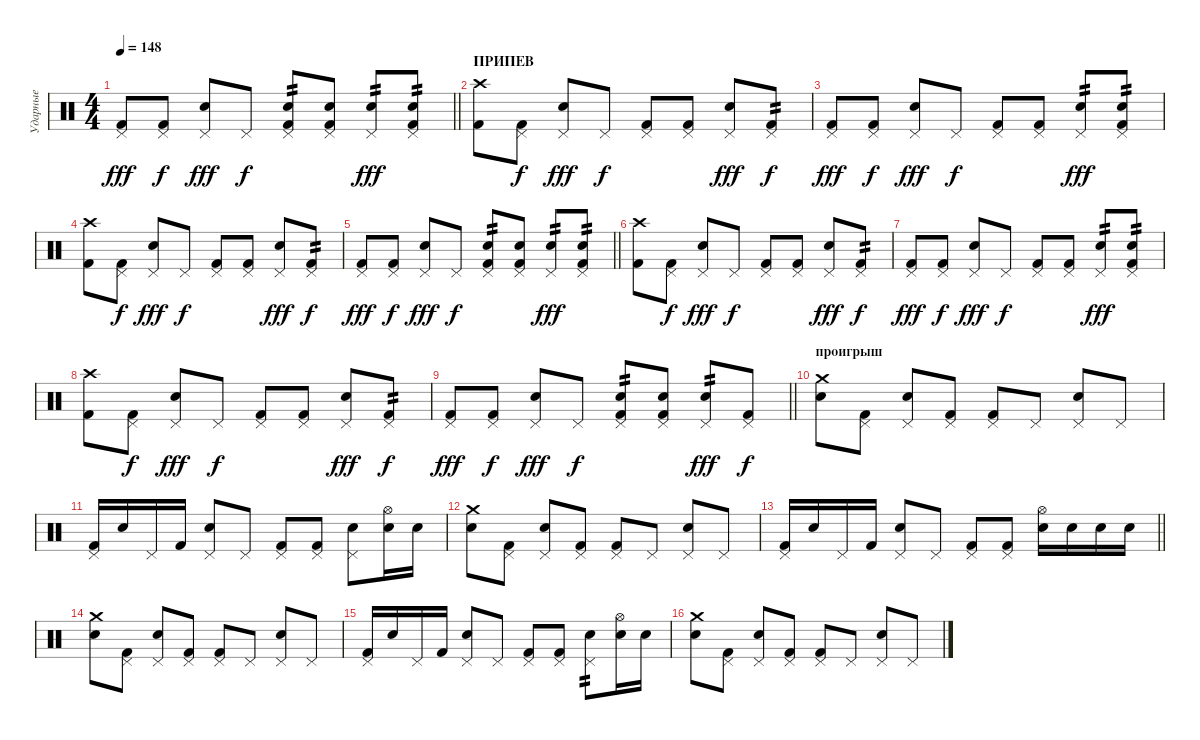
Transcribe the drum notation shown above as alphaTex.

\track ("Ударные" "Ударные") {instrument percussion}
\staff
\articulation defaults
\ts (4 4)
\tempo 148
\clef neutral
\barLineRight lightlight
\ks c
("Pedal Hi-Hat (hit)" "Kick (hit) 2").8{dy fff} ("Pedal Hi-Hat (hit)" "Kick (hit) 2").8{dy f} ("Pedal Hi-Hat (hit)" "Electric Snare (hit)").8{dy fff} "Pedal Hi-Hat (hit)".8{dy f} ("Pedal Hi-Hat (hit)" "Electric Snare (hit)" "Kick (hit) 2").8{tp 2} ("Pedal Hi-Hat (hit)" "Electric Snare (hit)" "Kick (hit) 2").8 ("Pedal Hi-Hat (hit)" "Electric Snare (hit)").8{tp 2 dy fff} ("Pedal Hi-Hat (hit)" "Electric Snare (hit)" "Kick (hit) 2").8{tp 2} |
\section ("" "ПРИПЕВ")
("Crash high (hit)" "Kick (hit) 2").8 ("Pedal Hi-Hat (hit)" "Kick (hit) 2").8{dy f} ("Pedal Hi-Hat (hit)" "Electric Snare (hit)").8{dy fff} "Pedal Hi-Hat (hit)".8{dy f} ("Pedal Hi-Hat (hit)" "Kick (hit) 2").8 ("Pedal Hi-Hat (hit)" "Kick (hit) 2").8 ("Pedal Hi-Hat (hit)" "Electric Snare (hit)").8{dy fff} ("Pedal Hi-Hat (hit)" "Kick (hit) 2").8{tp 2 dy f} |
("Pedal Hi-Hat (hit)" "Kick (hit) 2").8{dy fff} ("Pedal Hi-Hat (hit)" "Kick (hit) 2").8{dy f} ("Pedal Hi-Hat (hit)" "Electric Snare (hit)").8{dy fff} "Pedal Hi-Hat (hit)".8{dy f} ("Pedal Hi-Hat (hit)" "Kick (hit) 2").8 ("Pedal Hi-Hat (hit)" "Kick (hit) 2").8 ("Pedal Hi-Hat (hit)" "Electric Snare (hit)").8{tp 2 dy fff} ("Pedal Hi-Hat (hit)" "Electric Snare (hit)" "Kick (hit) 2").8{tp 2} |
("Crash high (hit)" "Kick (hit) 2").8 ("Pedal Hi-Hat (hit)" "Kick (hit) 2").8{dy f} ("Pedal Hi-Hat (hit)" "Electric Snare (hit)").8{dy fff} "Pedal Hi-Hat (hit)".8{dy f} ("Pedal Hi-Hat (hit)" "Kick (hit) 2").8 ("Pedal Hi-Hat (hit)" "Kick (hit) 2").8 ("Pedal Hi-Hat (hit)" "Electric Snare (hit)").8{dy fff} ("Pedal Hi-Hat (hit)" "Kick (hit) 2").8{tp 2 dy f} |
\barLineRight lightlight
("Pedal Hi-Hat (hit)" "Kick (hit) 2").8{dy fff} ("Pedal Hi-Hat (hit)" "Kick (hit) 2").8{dy f} ("Pedal Hi-Hat (hit)" "Electric Snare (hit)").8{dy fff} "Pedal Hi-Hat (hit)".8{dy f} ("Pedal Hi-Hat (hit)" "Electric Snare (hit)" "Kick (hit) 2").8{tp 2} ("Pedal Hi-Hat (hit)" "Electric Snare (hit)" "Kick (hit) 2").8 ("Pedal Hi-Hat (hit)" "Electric Snare (hit)").8{tp 2 dy fff} ("Pedal Hi-Hat (hit)" "Electric Snare (hit)" "Kick (hit) 2").8{tp 2} |
("Crash high (hit)" "Kick (hit) 2").8 ("Pedal Hi-Hat (hit)" "Kick (hit) 2").8{dy f} ("Pedal Hi-Hat (hit)" "Electric Snare (hit)").8{dy fff} "Pedal Hi-Hat (hit)".8{dy f} ("Pedal Hi-Hat (hit)" "Kick (hit) 2").8 ("Pedal Hi-Hat (hit)" "Kick (hit) 2").8 ("Pedal Hi-Hat (hit)" "Electric Snare (hit)").8{dy fff} ("Pedal Hi-Hat (hit)" "Kick (hit) 2").8{tp 2 dy f} |
("Pedal Hi-Hat (hit)" "Kick (hit) 2").8{dy fff} ("Pedal Hi-Hat (hit)" "Kick (hit) 2").8{dy f} ("Pedal Hi-Hat (hit)" "Electric Snare (hit)").8{dy fff} "Pedal Hi-Hat (hit)".8{dy f} ("Pedal Hi-Hat (hit)" "Kick (hit) 2").8 ("Pedal Hi-Hat (hit)" "Kick (hit) 2").8 ("Pedal Hi-Hat (hit)" "Electric Snare (hit)").8{tp 2 dy fff} ("Pedal Hi-Hat (hit)" "Electric Snare (hit)" "Kick (hit) 2").8{tp 2} |
("Crash high (hit)" "Kick (hit) 2").8 ("Pedal Hi-Hat (hit)" "Kick (hit) 2").8{dy f} ("Pedal Hi-Hat (hit)" "Electric Snare (hit)").8{dy fff} "Pedal Hi-Hat (hit)".8{dy f} ("Pedal Hi-Hat (hit)" "Kick (hit) 2").8 ("Pedal Hi-Hat (hit)" "Kick (hit) 2").8 ("Pedal Hi-Hat (hit)" "Electric Snare (hit)").8{dy fff} ("Pedal Hi-Hat (hit)" "Kick (hit) 2").8{tp 2 dy f} |
\barLineRight lightlight
("Pedal Hi-Hat (hit)" "Kick (hit) 2").8{dy fff} ("Pedal Hi-Hat (hit)" "Kick (hit) 2").8{dy f} ("Pedal Hi-Hat (hit)" "Electric Snare (hit)").8{dy fff} "Pedal Hi-Hat (hit)".8{dy f} ("Pedal Hi-Hat (hit)" "Electric Snare (hit)" "Kick (hit) 2").8{tp 2} ("Pedal Hi-Hat (hit)" "Electric Snare (hit)" "Kick (hit) 2").8 ("Pedal Hi-Hat (hit)" "Electric Snare (hit)").8{tp 2 dy fff} ("Pedal Hi-Hat (hit)" "Kick (hit) 2").8{dy f} |
\section ("" "проигрыш")
("Crash medium (hit)" "Electric Snare (hit)").8 ("Pedal Hi-Hat (hit)" "Kick (hit) 2").8 ("Pedal Hi-Hat (hit)" "Electric Snare (hit)").8 ("Pedal Hi-Hat (hit)" "Kick (hit) 2").8 ("Pedal Hi-Hat (hit)" "Kick (hit) 2").8 "Pedal Hi-Hat (hit)".8 ("Pedal Hi-Hat (hit)" "Electric Snare (hit)").8 "Pedal Hi-Hat (hit)".8 |
("Pedal Hi-Hat (hit)" "Kick (hit) 2").16 "Electric Snare (hit)".16 "Pedal Hi-Hat (hit)".16 "Kick (hit) 2".16 ("Pedal Hi-Hat (hit)" "Electric Snare (hit)").8 "Pedal Hi-Hat (hit)".8 ("Pedal Hi-Hat (hit)" "Kick (hit) 2").8 ("Pedal Hi-Hat (hit)" "Kick (hit) 2").8 ("Pedal Hi-Hat (hit)" "Electric Snare (hit)").8 ("Hi-Hat (open)" "Electric Snare (hit)").16 "Electric Snare (hit)".16 |
("Crash medium (hit)" "Electric Snare (hit)").8 ("Pedal Hi-Hat (hit)" "Kick (hit) 2").8 ("Pedal Hi-Hat (hit)" "Electric Snare (hit)").8 ("Pedal Hi-Hat (hit)" "Kick (hit) 2").8 ("Pedal Hi-Hat (hit)" "Kick (hit) 2").8 "Pedal Hi-Hat (hit)".8 ("Pedal Hi-Hat (hit)" "Electric Snare (hit)").8 "Pedal Hi-Hat (hit)".8 |
\barLineRight lightlight
("Pedal Hi-Hat (hit)" "Kick (hit) 2").16 "Electric Snare (hit)".16 "Pedal Hi-Hat (hit)".16 "Kick (hit) 2".16 ("Pedal Hi-Hat (hit)" "Electric Snare (hit)").8 "Pedal Hi-Hat (hit)".8 ("Pedal Hi-Hat (hit)" "Kick (hit) 2").8 ("Pedal Hi-Hat (hit)" "Kick (hit) 2").8 ("Hi-Hat (open)" "Electric Snare (hit)").16 "Electric Snare (hit)".16 "Electric Snare (hit)".16 "Electric Snare (hit)".16 |
("Crash medium (hit)" "Electric Snare (hit)").8 ("Pedal Hi-Hat (hit)" "Kick (hit) 2").8 ("Pedal Hi-Hat (hit)" "Electric Snare (hit)").8 ("Pedal Hi-Hat (hit)" "Kick (hit) 2").8 ("Pedal Hi-Hat (hit)" "Kick (hit) 2").8 "Pedal Hi-Hat (hit)".8 ("Pedal Hi-Hat (hit)" "Electric Snare (hit)").8 "Pedal Hi-Hat (hit)".8 |
("Pedal Hi-Hat (hit)" "Kick (hit) 2").16 "Electric Snare (hit)".16 "Pedal Hi-Hat (hit)".16 "Kick (hit) 2".16 ("Pedal Hi-Hat (hit)" "Electric Snare (hit)").8 "Pedal Hi-Hat (hit)".8 ("Pedal Hi-Hat (hit)" "Kick (hit) 2").8 ("Pedal Hi-Hat (hit)" "Kick (hit) 2").8 ("Pedal Hi-Hat (hit)" "Electric Snare (hit)").8{tp 2} ("Hi-Hat (open)" "Electric Snare (hit)").16 "Electric Snare (hit)".16 |
("Crash medium (hit)" "Electric Snare (hit)").8 ("Pedal Hi-Hat (hit)" "Kick (hit) 2").8 ("Pedal Hi-Hat (hit)" "Electric Snare (hit)").8 ("Pedal Hi-Hat (hit)" "Kick (hit) 2").8 ("Pedal Hi-Hat (hit)" "Kick (hit) 2").8 "Pedal Hi-Hat (hit)".8 ("Pedal Hi-Hat (hit)" "Electric Snare (hit)").8 "Pedal Hi-Hat (hit)".8
